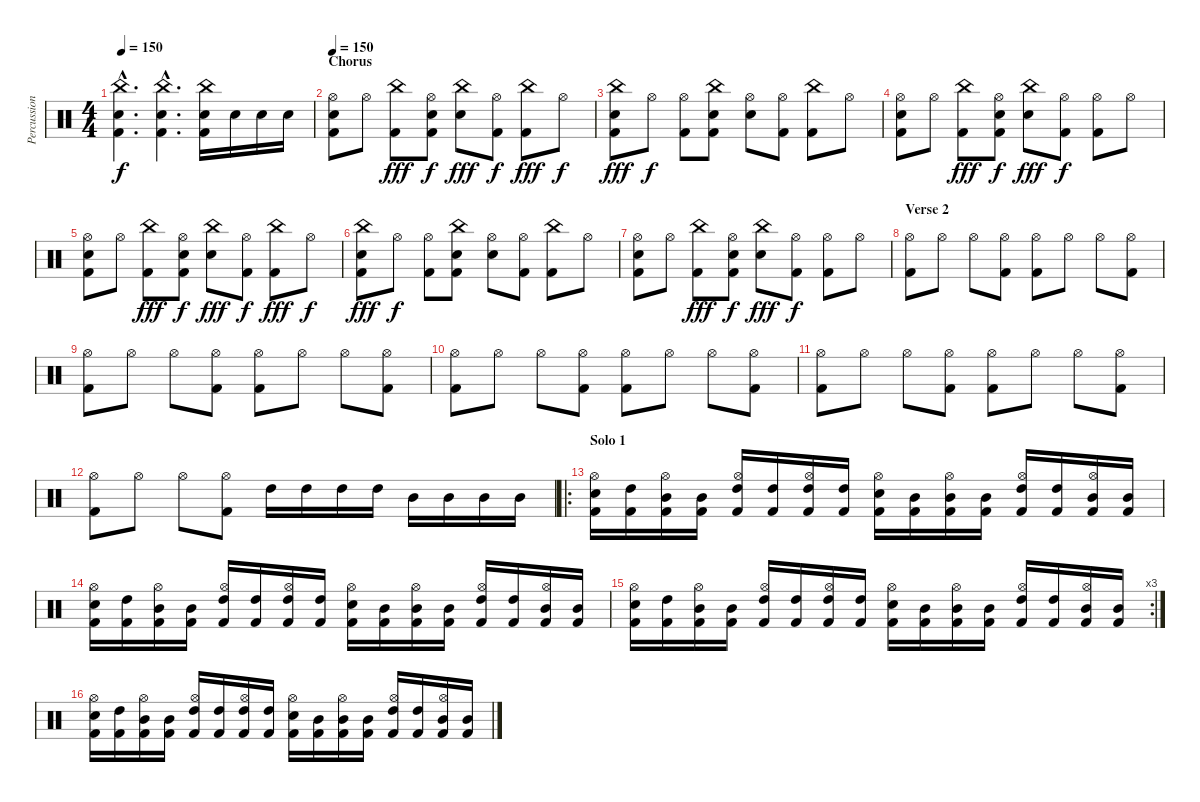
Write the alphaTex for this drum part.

\track ("Percussions" "Percussion") {instrument percussion}
\staff {score}
\articulation defaults
\ts (4 4)
\tempo 150
\clef neutral
\ks c
("China (hit)"{hac} "Electric Snare (hit)"{hac} "Kick (hit) 2"{hac}).4{d dy f} ("China (hit)"{hac} "Electric Snare (hit)"{hac} "Kick (hit) 2"{hac}).4{d} ("China (hit)" "Electric Snare (hit)" "Kick (hit) 2").16 "Electric Snare (hit)".16 "Electric Snare (hit)".16 "Electric Snare (hit)".16 |
\section ("" "Chorus")
\tempo 150
("Hi-Hat (open)" "Electric Snare (hit)" "Kick (hit) 2").8 "Hi-Hat (open)".8 ("China (hit)" "Kick (hit) 2").8{dy fff} ("Hi-Hat (open)" "Electric Snare (hit)" "Kick (hit) 2").8{dy f} ("China (hit)" "Electric Snare (hit)").8{dy fff} ("Hi-Hat (open)" "Kick (hit) 2").8{dy f} ("China (hit)" "Kick (hit) 2").8{dy fff} "Hi-Hat (open)".8{dy f} |
("China (hit)" "Electric Snare (hit)" "Kick (hit) 2").8{dy fff} "Hi-Hat (open)".8{dy f} ("Hi-Hat (open)" "Kick (hit) 2").8 ("China (hit)" "Electric Snare (hit)" "Kick (hit) 2").8 ("Hi-Hat (open)" "Electric Snare (hit)").8 ("Hi-Hat (open)" "Kick (hit) 2").8 ("China (hit)" "Kick (hit) 2").8 "Hi-Hat (open)".8 |
("Hi-Hat (open)" "Electric Snare (hit)" "Kick (hit) 2").8 "Hi-Hat (open)".8 ("China (hit)" "Kick (hit) 2").8{dy fff} ("Hi-Hat (open)" "Electric Snare (hit)" "Kick (hit) 2").8{dy f} ("China (hit)" "Electric Snare (hit)").8{dy fff} ("Hi-Hat (open)" "Kick (hit) 2").8{dy f} ("Hi-Hat (open)" "Kick (hit) 2").8 "Hi-Hat (open)".8 |
("Hi-Hat (open)" "Electric Snare (hit)" "Kick (hit) 2").8 "Hi-Hat (open)".8 ("China (hit)" "Kick (hit) 2").8{dy fff} ("Hi-Hat (open)" "Electric Snare (hit)" "Kick (hit) 2").8{dy f} ("China (hit)" "Electric Snare (hit)").8{dy fff} ("Hi-Hat (open)" "Kick (hit) 2").8{dy f} ("China (hit)" "Kick (hit) 2").8{dy fff} "Hi-Hat (open)".8{dy f} |
("China (hit)" "Electric Snare (hit)" "Kick (hit) 2").8{dy fff} "Hi-Hat (open)".8{dy f} ("Hi-Hat (open)" "Kick (hit) 2").8 ("China (hit)" "Electric Snare (hit)" "Kick (hit) 2").8 ("Hi-Hat (open)" "Electric Snare (hit)").8 ("Hi-Hat (open)" "Kick (hit) 2").8 ("China (hit)" "Kick (hit) 2").8 "Hi-Hat (open)".8 |
("Hi-Hat (open)" "Electric Snare (hit)" "Kick (hit) 2").8 "Hi-Hat (open)".8 ("China (hit)" "Kick (hit) 2").8{dy fff} ("Hi-Hat (open)" "Electric Snare (hit)" "Kick (hit) 2").8{dy f} ("China (hit)" "Electric Snare (hit)").8{dy fff} ("Hi-Hat (open)" "Kick (hit) 2").8{dy f} ("Hi-Hat (open)" "Kick (hit) 2").8 "Hi-Hat (open)".8 |
\section ("" "Verse 2")
("Hi-Hat (open)" "Kick (hit) 2").8 "Hi-Hat (open)".8 "Hi-Hat (open)".8 ("Hi-Hat (open)" "Kick (hit) 2").8 ("Hi-Hat (open)" "Kick (hit) 2").8 "Hi-Hat (open)".8 "Hi-Hat (open)".8 ("Hi-Hat (open)" "Kick (hit) 2").8 |
("Hi-Hat (open)" "Kick (hit) 2").8 "Hi-Hat (open)".8 "Hi-Hat (open)".8 ("Hi-Hat (open)" "Kick (hit) 2").8 ("Hi-Hat (open)" "Kick (hit) 2").8 "Hi-Hat (open)".8 "Hi-Hat (open)".8 ("Hi-Hat (open)" "Kick (hit) 2").8 |
("Hi-Hat (open)" "Kick (hit) 2").8 "Hi-Hat (open)".8 "Hi-Hat (open)".8 ("Hi-Hat (open)" "Kick (hit) 2").8 ("Hi-Hat (open)" "Kick (hit) 2").8 "Hi-Hat (open)".8 "Hi-Hat (open)".8 ("Hi-Hat (open)" "Kick (hit) 2").8 |
("Hi-Hat (open)" "Kick (hit) 2").8 "Hi-Hat (open)".8 "Hi-Hat (open)".8 ("Hi-Hat (open)" "Kick (hit) 2").8 ("Hi-Hat (open)" "Kick (hit) 2").8 "Hi-Hat (open)".8 "Hi-Hat (open)".8 ("Hi-Hat (open)" "Kick (hit) 2").8 |
("Hi-Hat (open)" "Kick (hit) 2").8 "Hi-Hat (open)".8 "Hi-Hat (open)".8 ("Hi-Hat (open)" "Kick (hit) 2").8 "High Tom (hit)".16 "High Tom (hit)".16 "High Tom (hit)".16 "High Tom (hit)".16 "Mid Tom (hit)".16 "Mid Tom (hit)".16 "Mid Tom (hit)".16 "Mid Tom (hit)".16 |
\ro
\section ("" "Solo 1")
("Hi-Hat (open)" "Electric Snare (hit)" "Kick (hit) 2").16 ("High Tom (hit)" "Kick (hit) 2").16 ("Hi-Hat (open)" "Mid Tom (hit)" "Kick (hit) 2").16 ("Mid Tom (hit)" "Kick (hit) 2").16 ("Hi-Hat (open)" "High Tom (hit)" "Kick (hit) 2").16 ("High Tom (hit)" "Kick (hit) 2").16 ("Hi-Hat (open)" "High Tom (hit)" "Kick (hit) 2").16 ("High Tom (hit)" "Kick (hit) 2").16 ("Hi-Hat (open)" "Electric Snare (hit)" "Kick (hit) 2").16 ("Mid Tom (hit)" "Kick (hit) 2").16 ("Hi-Hat (open)" "Mid Tom (hit)" "Kick (hit) 2").16 ("Mid Tom (hit)" "Kick (hit) 2").16 ("Hi-Hat (open)" "High Tom (hit)" "Kick (hit) 2").16 ("High Tom (hit)" "Kick (hit) 2").16 ("Hi-Hat (open)" "Mid Tom (hit)" "Kick (hit) 2").16 ("Mid Tom (hit)" "Kick (hit) 2").16 |
("Hi-Hat (open)" "Electric Snare (hit)" "Kick (hit) 2").16 ("High Tom (hit)" "Kick (hit) 2").16 ("Hi-Hat (open)" "Mid Tom (hit)" "Kick (hit) 2").16 ("Mid Tom (hit)" "Kick (hit) 2").16 ("Hi-Hat (open)" "High Tom (hit)" "Kick (hit) 2").16 ("High Tom (hit)" "Kick (hit) 2").16 ("Hi-Hat (open)" "High Tom (hit)" "Kick (hit) 2").16 ("High Tom (hit)" "Kick (hit) 2").16 ("Hi-Hat (open)" "Electric Snare (hit)" "Kick (hit) 2").16 ("Mid Tom (hit)" "Kick (hit) 2").16 ("Hi-Hat (open)" "Mid Tom (hit)" "Kick (hit) 2").16 ("Mid Tom (hit)" "Kick (hit) 2").16 ("Hi-Hat (open)" "High Tom (hit)" "Kick (hit) 2").16 ("High Tom (hit)" "Kick (hit) 2").16 ("Hi-Hat (open)" "Mid Tom (hit)" "Kick (hit) 2").16 ("Mid Tom (hit)" "Kick (hit) 2").16 |
\rc 3
("Hi-Hat (open)" "Electric Snare (hit)" "Kick (hit) 2").16 ("High Tom (hit)" "Kick (hit) 2").16 ("Hi-Hat (open)" "Mid Tom (hit)" "Kick (hit) 2").16 ("Mid Tom (hit)" "Kick (hit) 2").16 ("Hi-Hat (open)" "High Tom (hit)" "Kick (hit) 2").16 ("High Tom (hit)" "Kick (hit) 2").16 ("Hi-Hat (open)" "High Tom (hit)" "Kick (hit) 2").16 ("High Tom (hit)" "Kick (hit) 2").16 ("Hi-Hat (open)" "Electric Snare (hit)" "Kick (hit) 2").16 ("Mid Tom (hit)" "Kick (hit) 2").16 ("Hi-Hat (open)" "Mid Tom (hit)" "Kick (hit) 2").16 ("Mid Tom (hit)" "Kick (hit) 2").16 ("Hi-Hat (open)" "High Tom (hit)" "Kick (hit) 2").16 ("High Tom (hit)" "Kick (hit) 2").16 ("Hi-Hat (open)" "Mid Tom (hit)" "Kick (hit) 2").16 ("Mid Tom (hit)" "Kick (hit) 2").16 |
("Hi-Hat (open)" "Electric Snare (hit)" "Kick (hit) 2").16 ("High Tom (hit)" "Kick (hit) 2").16 ("Hi-Hat (open)" "Mid Tom (hit)" "Kick (hit) 2").16 ("Mid Tom (hit)" "Kick (hit) 2").16 ("Hi-Hat (open)" "High Tom (hit)" "Kick (hit) 2").16 ("High Tom (hit)" "Kick (hit) 2").16 ("Hi-Hat (open)" "High Tom (hit)" "Kick (hit) 2").16 ("High Tom (hit)" "Kick (hit) 2").16 ("Hi-Hat (open)" "Electric Snare (hit)" "Kick (hit) 2").16 ("Mid Tom (hit)" "Kick (hit) 2").16 ("Hi-Hat (open)" "Mid Tom (hit)" "Kick (hit) 2").16 ("Mid Tom (hit)" "Kick (hit) 2").16 ("Hi-Hat (open)" "High Tom (hit)" "Kick (hit) 2").16 ("High Tom (hit)" "Kick (hit) 2").16 ("Hi-Hat (open)" "Mid Tom (hit)" "Kick (hit) 2").16 ("Mid Tom (hit)" "Kick (hit) 2").16
